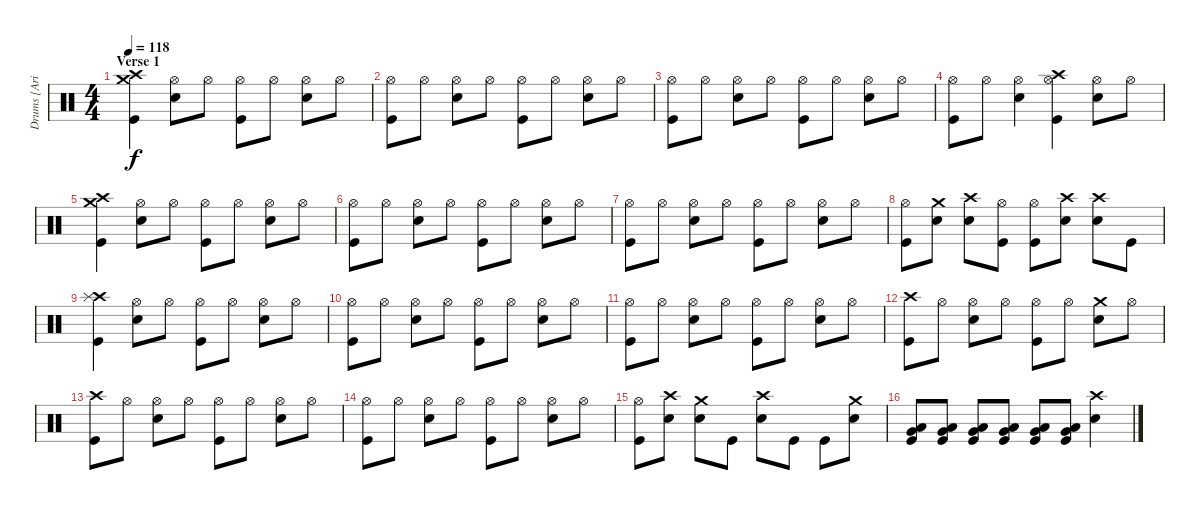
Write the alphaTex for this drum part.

\track ("Drums [Arin Ilejay]" "Drums [Ari") {instrument percussion}
\staff {score}
\articulation defaults
\ts (4 4)
\section ("" "Verse 1")
\tempo 118
\clef neutral
\ks c
("Crash high (hit)" "Crash medium (hit)" "Kick (hit)").4{dy f} ("Hi-Hat (open)" "Snare (hit) 2").8 "Hi-Hat (open)".8 ("Hi-Hat (open)" "Kick (hit)").8 "Hi-Hat (open)".8 ("Hi-Hat (open)" "Snare (hit) 2").8 "Hi-Hat (open)".8 |
("Hi-Hat (open)" "Kick (hit)").8 "Hi-Hat (open)".8 ("Hi-Hat (open)" "Snare (hit) 2").8 "Hi-Hat (open)".8 ("Hi-Hat (open)" "Kick (hit)").8 "Hi-Hat (open)".8 ("Hi-Hat (open)" "Snare (hit) 2").8 "Hi-Hat (open)".8 |
("Hi-Hat (open)" "Kick (hit)").8 "Hi-Hat (open)".8 ("Hi-Hat (open)" "Snare (hit) 2").8 "Hi-Hat (open)".8 ("Hi-Hat (open)" "Kick (hit)").8 "Hi-Hat (open)".8 ("Hi-Hat (open)" "Snare (hit) 2").8 "Hi-Hat (open)".8 |
("Hi-Hat (open)" "Kick (hit)").8 "Hi-Hat (open)".8 ("Hi-Hat (open)" "Snare (hit) 2").4 ("Crash high (hit)" "Hi-Hat (open)" "Kick (hit)").4 ("Hi-Hat (open)" "Snare (hit) 2").8 "Hi-Hat (open)".8 |
("Crash high (hit)" "Crash medium (hit)" "Kick (hit)").4 ("Hi-Hat (open)" "Snare (hit) 2").8 "Hi-Hat (open)".8 ("Hi-Hat (open)" "Kick (hit)").8 "Hi-Hat (open)".8 ("Hi-Hat (open)" "Snare (hit) 2").8 "Hi-Hat (open)".8 |
("Hi-Hat (open)" "Kick (hit)").8 "Hi-Hat (open)".8 ("Hi-Hat (open)" "Snare (hit) 2").8 "Hi-Hat (open)".8 ("Hi-Hat (open)" "Kick (hit)").8 "Hi-Hat (open)".8 ("Hi-Hat (open)" "Snare (hit) 2").8 "Hi-Hat (open)".8 |
("Hi-Hat (open)" "Kick (hit)").8 "Hi-Hat (open)".8 ("Hi-Hat (open)" "Snare (hit) 2").8 "Hi-Hat (open)".8 ("Hi-Hat (open)" "Kick (hit)").8 "Hi-Hat (open)".8 ("Hi-Hat (open)" "Snare (hit) 2").8 "Hi-Hat (open)".8 |
("Hi-Hat (open)" "Kick (hit)").8 ("Crash medium (hit)" "Snare (hit) 2").8 ("Crash high (hit)" "Snare (hit) 2").8 ("Hi-Hat (open)" "Kick (hit)").8 ("Hi-Hat (open)" "Kick (hit)").8 ("Crash high (hit)" "Snare (hit) 2").8 ("Crash high (hit)" "Snare (hit) 2").8 "Kick (hit)".8 |
("Crash high (hit)" "Splash (hit)" "Kick (hit)").4 ("Hi-Hat (open)" "Snare (hit) 2").8 "Hi-Hat (open)".8 ("Hi-Hat (open)" "Kick (hit)").8 "Hi-Hat (open)".8 ("Hi-Hat (open)" "Snare (hit) 2").8 "Hi-Hat (open)".8 |
("Hi-Hat (open)" "Kick (hit)").8 "Hi-Hat (open)".8 ("Hi-Hat (open)" "Snare (hit) 2").8 "Hi-Hat (open)".8 ("Hi-Hat (open)" "Kick (hit)").8 "Hi-Hat (open)".8 ("Hi-Hat (open)" "Snare (hit) 2").8 "Hi-Hat (open)".8 |
("Hi-Hat (open)" "Kick (hit)").8 "Hi-Hat (open)".8 ("Hi-Hat (open)" "Snare (hit) 2").8 "Hi-Hat (open)".8 ("Hi-Hat (open)" "Kick (hit)").8 "Hi-Hat (open)".8 ("Hi-Hat (open)" "Snare (hit) 2").8 "Hi-Hat (open)".8 |
("Crash high (hit)" "Kick (hit)").8 "Hi-Hat (open)".8 ("Hi-Hat (open)" "Snare (hit) 2").8 "Hi-Hat (open)".8 ("Hi-Hat (open)" "Kick (hit)").8 "Hi-Hat (open)".8 ("Crash medium (hit)" "Snare (hit) 2").8 "Hi-Hat (open)".8 |
("Crash high (hit)" "Kick (hit)").8 "Hi-Hat (open)".8 ("Hi-Hat (open)" "Snare (hit) 2").8 "Hi-Hat (open)".8 ("Hi-Hat (open)" "Kick (hit)").8 "Hi-Hat (open)".8 ("Hi-Hat (open)" "Snare (hit) 2").8 "Hi-Hat (open)".8 |
("Hi-Hat (open)" "Kick (hit)").8 "Hi-Hat (open)".8 ("Hi-Hat (open)" "Snare (hit) 2").8 "Hi-Hat (open)".8 ("Hi-Hat (open)" "Kick (hit)").8 "Hi-Hat (open)".8 ("Hi-Hat (open)" "Snare (hit) 2").8 "Hi-Hat (open)".8 |
("Hi-Hat (open)" "Kick (hit)").8 ("Crash high (hit)" "Snare (hit) 2").8 ("Crash medium (hit)" "Snare (hit) 2").8 "Kick (hit)".8 ("Crash high (hit)" "Snare (hit) 2").8 "Kick (hit)".8 "Kick (hit)".8 ("Crash medium (hit)" "Snare (hit) 2").8 |
("Low Tom (hit)" "Very Low Tom (hit)" "Kick (hit)").8 ("Low Tom (hit)" "Very Low Tom (hit)" "Kick (hit)").8 ("Low Tom (hit)" "Very Low Tom (hit)" "Kick (hit)").8 ("Low Tom (hit)" "Very Low Tom (hit)" "Kick (hit)").8 ("Low Tom (hit)" "Very Low Tom (hit)" "Kick (hit)").8 ("Low Tom (hit)" "Very Low Tom (hit)" "Kick (hit)").8 ("Crash high (hit)" "Snare (hit) 2").4
